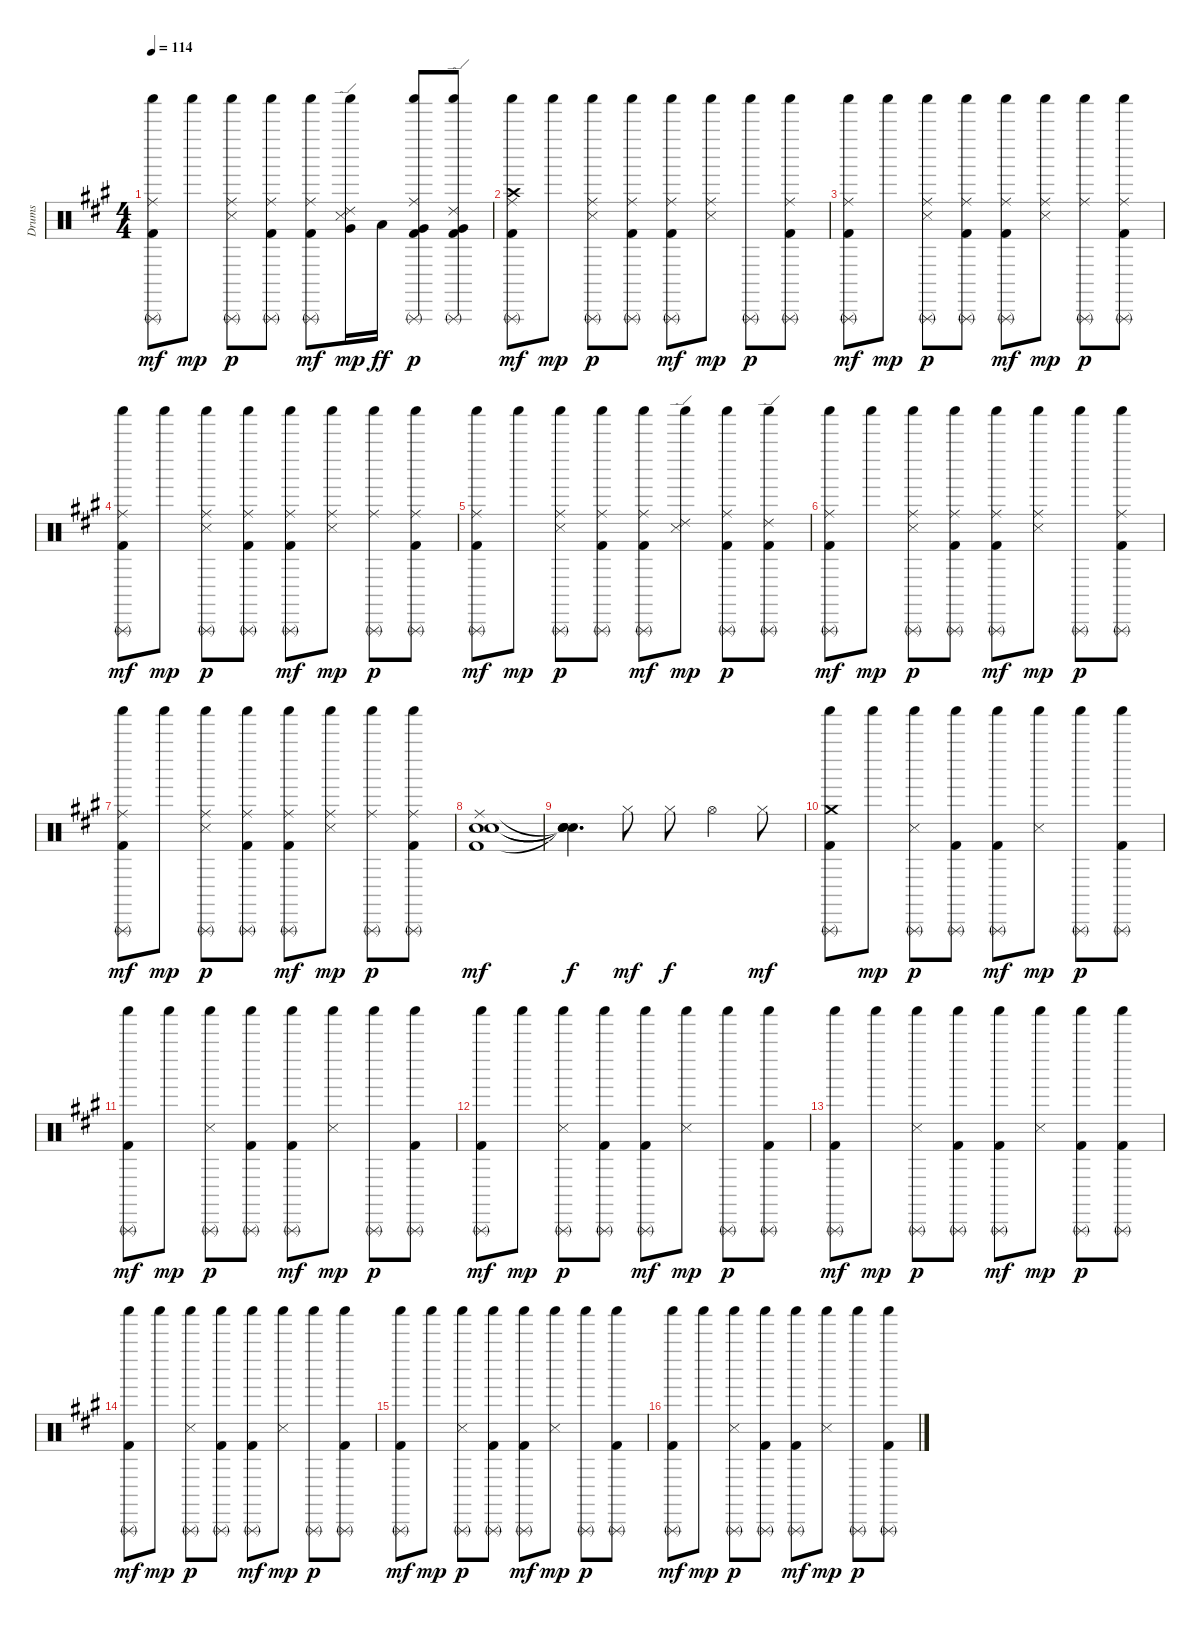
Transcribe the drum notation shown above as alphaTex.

\track ("Drums" "Drums") {instrument percussion}
\staff {score}
\articulation defaults
\ts (4 4)
\tempo 114
\clef neutral
\ks a
("Kick (hit) 2" "Ride (middle)" "Triangle (rnute)" "Shaker (hit)").8{dy mf} "Shaker (hit)".8{dy mp} ("Snare (side stick) 3" "Ride (middle)" "Triangle (rnute)" "Shaker (hit)").8{dy p} ("Kick (hit) 2" "Ride (middle)" "Triangle (rnute)" "Shaker (hit)").8 ("Kick (hit) 2" "Ride (middle)" "Triangle (rnute)" "Shaker (hit)").8{dy mf} ("Snare (side stick) 3" "Very Low Tom (hit)" "Ride (edge) 2" "Shaker (hit)").16{dy mp} "Low Floor Tom (hit)".16{dy ff} ("Kick (hit) 2" "Very Low Tom (hit)" "Ride (middle)" "Triangle (rnute)" "Shaker (hit)").8{dy p} ("Kick (hit) 2" "Very Low Tom (hit)" "Ride (edge) 2" "Triangle (rnute)" "Shaker (hit)").8 |
("Kick (hit) 2" "Crash high (hit)" "Ride (middle)" "Triangle (rnute)" "Shaker (hit)").8{dy mf} "Shaker (hit)".8{dy mp} ("Snare (side stick) 3" "Ride (middle)" "Triangle (rnute)" "Shaker (hit)").8{dy p} ("Kick (hit) 2" "Ride (middle)" "Triangle (rnute)" "Shaker (hit)").8 ("Kick (hit) 2" "Ride (middle)" "Triangle (rnute)" "Shaker (hit)").8{dy mf} ("Snare (side stick) 3" "Ride (middle)" "Shaker (hit)").8{dy mp} ("Triangle (rnute)" "Shaker (hit)").8{dy p} ("Kick (hit) 2" "Ride (middle)" "Triangle (rnute)" "Shaker (hit)").8 |
("Kick (hit) 2" "Ride (middle)" "Triangle (rnute)" "Shaker (hit)").8{dy mf} "Shaker (hit)".8{dy mp} ("Snare (side stick) 3" "Ride (middle)" "Triangle (rnute)" "Shaker (hit)").8{dy p} ("Kick (hit) 2" "Ride (middle)" "Triangle (rnute)" "Shaker (hit)").8 ("Kick (hit) 2" "Ride (middle)" "Triangle (rnute)" "Shaker (hit)").8{dy mf} ("Snare (side stick) 3" "Ride (middle)" "Shaker (hit)").8{dy mp} ("Ride (middle)" "Triangle (rnute)" "Shaker (hit)").8{dy p} ("Kick (hit) 2" "Ride (middle)" "Triangle (rnute)" "Shaker (hit)").8 |
("Kick (hit) 2" "Ride (middle)" "Triangle (rnute)" "Shaker (hit)").8{dy mf} "Shaker (hit)".8{dy mp} ("Snare (side stick) 3" "Ride (middle)" "Triangle (rnute)" "Shaker (hit)").8{dy p} ("Kick (hit) 2" "Ride (middle)" "Triangle (rnute)" "Shaker (hit)").8 ("Kick (hit) 2" "Ride (middle)" "Triangle (rnute)" "Shaker (hit)").8{dy mf} ("Snare (side stick) 3" "Ride (middle)" "Shaker (hit)").8{dy mp} ("Ride (middle)" "Triangle (rnute)" "Shaker (hit)").8{dy p} ("Kick (hit) 2" "Ride (middle)" "Triangle (rnute)" "Shaker (hit)").8 |
("Kick (hit) 2" "Ride (middle)" "Triangle (rnute)" "Shaker (hit)").8{dy mf} "Shaker (hit)".8{dy mp} ("Snare (side stick) 3" "Ride (middle)" "Triangle (rnute)" "Shaker (hit)").8{dy p} ("Kick (hit) 2" "Ride (middle)" "Triangle (rnute)" "Shaker (hit)").8 ("Kick (hit) 2" "Ride (middle)" "Triangle (rnute)" "Shaker (hit)").8{dy mf} ("Snare (side stick) 3" "Ride (edge) 2" "Shaker (hit)").8{dy mp} ("Kick (hit) 2" "Ride (middle)" "Triangle (rnute)" "Shaker (hit)").8{dy p} ("Kick (hit) 2" "Ride (edge) 2" "Triangle (rnute)" "Shaker (hit)").8 |
("Kick (hit) 2" "Ride (middle)" "Triangle (rnute)" "Shaker (hit)").8{dy mf} "Shaker (hit)".8{dy mp} ("Snare (side stick) 3" "Ride (middle)" "Triangle (rnute)" "Shaker (hit)").8{dy p} ("Kick (hit) 2" "Ride (middle)" "Triangle (rnute)" "Shaker (hit)").8 ("Kick (hit) 2" "Ride (middle)" "Triangle (rnute)" "Shaker (hit)").8{dy mf} ("Snare (side stick) 3" "Ride (middle)" "Shaker (hit)").8{dy mp} ("Triangle (rnute)" "Shaker (hit)").8{dy p} ("Kick (hit) 2" "Ride (middle)" "Triangle (rnute)" "Shaker (hit)").8 |
("Kick (hit) 2" "Ride (middle)" "Triangle (rnute)" "Shaker (hit)").8{dy mf} "Shaker (hit)".8{dy mp} ("Snare (side stick) 3" "Ride (middle)" "Triangle (rnute)" "Shaker (hit)").8{dy p} ("Kick (hit) 2" "Ride (middle)" "Triangle (rnute)" "Shaker (hit)").8 ("Kick (hit) 2" "Ride (middle)" "Triangle (rnute)" "Shaker (hit)").8{dy mf} ("Snare (side stick) 3" "Ride (middle)" "Shaker (hit)").8{dy mp} ("Ride (middle)" "Triangle (rnute)" "Shaker (hit)").8{dy p} ("Kick (hit) 2" "Ride (middle)" "Triangle (rnute)" "Shaker (hit)").8 |
("Kick (hit) 2" "Snare (hit) 2" "Electric Snare (hit)" "Ride (middle)").1{dy mf} |
("Snare (hit)"{t} "Snare (hit)"{t} "Snare (hit)"{t} "Snare (hit)"{t}).4{d dy f} "Hi-Hat (closed)".8{dy mf} "Hi-Hat (closed)".8{dy f} "Hi-Hat (open)".4 "Hi-Hat (closed)".8{dy mf} |
("Kick (hit) 2" "Crash medium (hit)" "Triangle (rnute)" "Shaker (hit)").8 "Shaker (hit)".8{dy mp} ("Snare (side stick) 3" "Triangle (rnute)" "Shaker (hit)").8{dy p} ("Kick (hit) 2" "Triangle (rnute)" "Shaker (hit)").8 ("Kick (hit) 2" "Triangle (rnute)" "Shaker (hit)").8{dy mf} ("Snare (side stick) 3" "Shaker (hit)").8{dy mp} ("Triangle (rnute)" "Shaker (hit)").8{dy p} ("Kick (hit) 2" "Triangle (rnute)" "Shaker (hit)").8 |
("Kick (hit) 2" "Triangle (rnute)" "Shaker (hit)").8{dy mf} "Shaker (hit)".8{dy mp} ("Snare (side stick) 3" "Triangle (rnute)" "Shaker (hit)").8{dy p} ("Kick (hit) 2" "Triangle (rnute)" "Shaker (hit)").8 ("Kick (hit) 2" "Triangle (rnute)" "Shaker (hit)").8{dy mf} ("Snare (side stick) 3" "Shaker (hit)").8{dy mp} ("Triangle (rnute)" "Shaker (hit)").8{dy p} ("Kick (hit) 2" "Triangle (rnute)" "Shaker (hit)").8 |
("Kick (hit) 2" "Triangle (rnute)" "Shaker (hit)").8{dy mf} "Shaker (hit)".8{dy mp} ("Snare (side stick) 3" "Triangle (rnute)" "Shaker (hit)").8{dy p} ("Kick (hit) 2" "Triangle (rnute)" "Shaker (hit)").8 ("Kick (hit) 2" "Triangle (rnute)" "Shaker (hit)").8{dy mf} ("Snare (side stick) 3" "Shaker (hit)").8{dy mp} ("Triangle (rnute)" "Shaker (hit)").8{dy p} ("Kick (hit) 2" "Triangle (rnute)" "Shaker (hit)").8 |
("Kick (hit) 2" "Triangle (rnute)" "Shaker (hit)").8{dy mf} "Shaker (hit)".8{dy mp} ("Snare (side stick) 3" "Triangle (rnute)" "Shaker (hit)").8{dy p} ("Kick (hit) 2" "Triangle (rnute)" "Shaker (hit)").8 ("Kick (hit) 2" "Triangle (rnute)" "Shaker (hit)").8{dy mf} ("Snare (side stick) 3" "Shaker (hit)").8{dy mp} ("Kick (hit) 2" "Triangle (rnute)" "Shaker (hit)").8{dy p} ("Kick (hit) 2" "Triangle (rnute)" "Shaker (hit)").8 |
("Kick (hit) 2" "Triangle (rnute)" "Shaker (hit)").8{dy mf} "Shaker (hit)".8{dy mp} ("Snare (side stick) 3" "Triangle (rnute)" "Shaker (hit)").8{dy p} ("Kick (hit) 2" "Triangle (rnute)" "Shaker (hit)").8 ("Kick (hit) 2" "Triangle (rnute)" "Shaker (hit)").8{dy mf} ("Snare (side stick) 3" "Shaker (hit)").8{dy mp} ("Triangle (rnute)" "Shaker (hit)").8{dy p} ("Kick (hit) 2" "Triangle (rnute)" "Shaker (hit)").8 |
("Kick (hit) 2" "Triangle (rnute)" "Shaker (hit)").8{dy mf} "Shaker (hit)".8{dy mp} ("Snare (side stick) 3" "Triangle (rnute)" "Shaker (hit)").8{dy p} ("Kick (hit) 2" "Triangle (rnute)" "Shaker (hit)").8 ("Kick (hit) 2" "Triangle (rnute)" "Shaker (hit)").8{dy mf} ("Snare (side stick) 3" "Shaker (hit)").8{dy mp} ("Triangle (rnute)" "Shaker (hit)").8{dy p} ("Kick (hit) 2" "Triangle (rnute)" "Shaker (hit)").8 |
("Kick (hit) 2" "Triangle (rnute)" "Shaker (hit)").8{dy mf} "Shaker (hit)".8{dy mp} ("Snare (side stick) 3" "Triangle (rnute)" "Shaker (hit)").8{dy p} ("Kick (hit) 2" "Triangle (rnute)" "Shaker (hit)").8 ("Kick (hit) 2" "Triangle (rnute)" "Shaker (hit)").8{dy mf} ("Snare (side stick) 3" "Shaker (hit)").8{dy mp} ("Triangle (rnute)" "Shaker (hit)").8{dy p} ("Kick (hit) 2" "Triangle (rnute)" "Shaker (hit)").8
